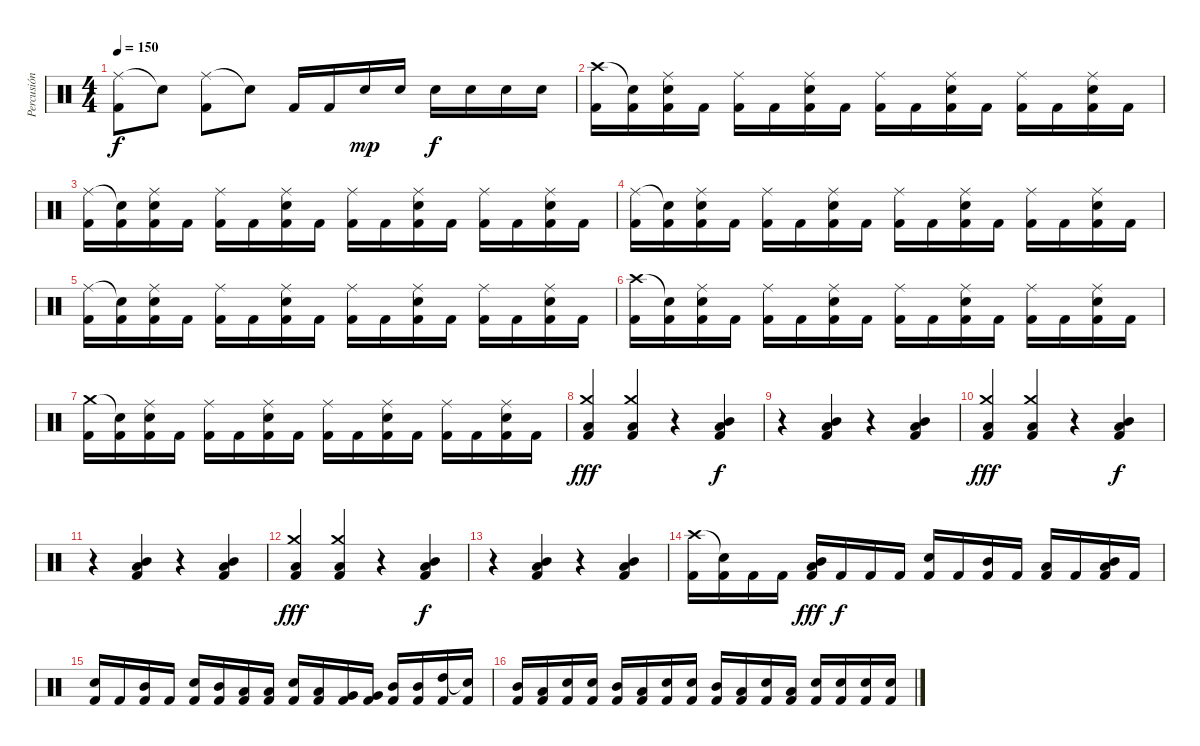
\track ("Percusión" "Percusión") {instrument percussion}
\staff {score}
\articulation defaults
\ts (4 4)
\tempo 150
\clef neutral
\ks c
("Ride (middle)" "Kick (hit) 2").8{dy f} "Snare (hit)"{t}.8 ("Ride (middle)" "Kick (hit) 2").8 "Snare (hit)"{t}.8 "Kick (hit) 2".16 "Kick (hit) 2".16 "Electric Snare (hit)".16{dy mp} "Electric Snare (hit)".16 "Electric Snare (hit)".16{dy f} "Electric Snare (hit)".16 "Electric Snare (hit)".16 "Electric Snare (hit)".16 |
("Crash high (hit)" "Kick (hit) 2").16 ("Snare (hit)"{t} "Kick (hit) 2").16 ("Ride (middle)" "Electric Snare (hit)" "Kick (hit) 2").16 "Kick (hit) 2".16 ("Ride (middle)" "Kick (hit) 2").16 "Kick (hit) 2".16 ("Ride (middle)" "Electric Snare (hit)" "Kick (hit) 2").16 "Kick (hit) 2".16 ("Ride (middle)" "Kick (hit) 2").16 "Kick (hit) 2".16 ("Ride (middle)" "Electric Snare (hit)" "Kick (hit) 2").16 "Kick (hit) 2".16 ("Ride (middle)" "Kick (hit) 2").16 "Kick (hit) 2".16 ("Ride (middle)" "Electric Snare (hit)" "Kick (hit) 2").16 "Kick (hit) 2".16 |
("Ride (middle)" "Kick (hit) 2").16 ("Snare (hit)"{t} "Kick (hit) 2").16 ("Ride (middle)" "Electric Snare (hit)" "Kick (hit) 2").16 "Kick (hit) 2".16 ("Ride (middle)" "Kick (hit) 2").16 "Kick (hit) 2".16 ("Ride (middle)" "Electric Snare (hit)" "Kick (hit) 2").16 "Kick (hit) 2".16 ("Ride (middle)" "Kick (hit) 2").16 "Kick (hit) 2".16 ("Ride (middle)" "Electric Snare (hit)" "Kick (hit) 2").16 "Kick (hit) 2".16 ("Ride (middle)" "Kick (hit) 2").16 "Kick (hit) 2".16 ("Ride (middle)" "Electric Snare (hit)" "Kick (hit) 2").16 "Kick (hit) 2".16 |
("Ride (middle)" "Kick (hit) 2").16 ("Snare (hit)"{t} "Kick (hit) 2").16 ("Ride (middle)" "Electric Snare (hit)" "Kick (hit) 2").16 "Kick (hit) 2".16 ("Ride (middle)" "Kick (hit) 2").16 "Kick (hit) 2".16 ("Ride (middle)" "Electric Snare (hit)" "Kick (hit) 2").16 "Kick (hit) 2".16 ("Ride (middle)" "Kick (hit) 2").16 "Kick (hit) 2".16 ("Ride (middle)" "Electric Snare (hit)" "Kick (hit) 2").16 "Kick (hit) 2".16 ("Ride (middle)" "Kick (hit) 2").16 "Kick (hit) 2".16 ("Ride (middle)" "Electric Snare (hit)" "Kick (hit) 2").16 "Kick (hit) 2".16 |
("Ride (middle)" "Kick (hit) 2").16 ("Snare (hit)"{t} "Kick (hit) 2").16 ("Ride (middle)" "Electric Snare (hit)" "Kick (hit) 2").16 "Kick (hit) 2".16 ("Ride (middle)" "Kick (hit) 2").16 "Kick (hit) 2".16 ("Ride (middle)" "Electric Snare (hit)" "Kick (hit) 2").16 "Kick (hit) 2".16 ("Ride (middle)" "Kick (hit) 2").16 "Kick (hit) 2".16 ("Ride (middle)" "Electric Snare (hit)" "Kick (hit) 2").16 "Kick (hit) 2".16 ("Ride (middle)" "Kick (hit) 2").16 "Kick (hit) 2".16 ("Ride (middle)" "Electric Snare (hit)" "Kick (hit) 2").16 "Kick (hit) 2".16 |
("Crash high (hit)" "Kick (hit) 2").16 ("Snare (hit)"{t} "Kick (hit) 2").16 ("Ride (middle)" "Electric Snare (hit)" "Kick (hit) 2").16 "Kick (hit) 2".16 ("Ride (middle)" "Kick (hit) 2").16 "Kick (hit) 2".16 ("Ride (middle)" "Electric Snare (hit)" "Kick (hit) 2").16 "Kick (hit) 2".16 ("Ride (middle)" "Kick (hit) 2").16 "Kick (hit) 2".16 ("Ride (middle)" "Electric Snare (hit)" "Kick (hit) 2").16 "Kick (hit) 2".16 ("Ride (middle)" "Kick (hit) 2").16 "Kick (hit) 2".16 ("Ride (middle)" "Electric Snare (hit)" "Kick (hit) 2").16 "Kick (hit) 2".16 |
("Crash medium (hit)" "Kick (hit) 2").16 ("Snare (hit)"{t} "Kick (hit) 2").16 ("Ride (middle)" "Electric Snare (hit)" "Kick (hit) 2").16 "Kick (hit) 2".16 ("Ride (middle)" "Kick (hit) 2").16 "Kick (hit) 2".16 ("Ride (middle)" "Electric Snare (hit)" "Kick (hit) 2").16 "Kick (hit) 2".16 ("Ride (middle)" "Kick (hit) 2").16 "Kick (hit) 2".16 ("Ride (middle)" "Electric Snare (hit)" "Kick (hit) 2").16 "Kick (hit) 2".16 ("Ride (middle)" "Kick (hit) 2").16 "Kick (hit) 2".16 ("Ride (middle)" "Electric Snare (hit)" "Kick (hit) 2").16 "Kick (hit) 2".16 |
("Crash medium (hit)" "Low Tom (hit)" "Kick (hit) 2").4{dy fff} ("Crash medium (hit)" "Low Tom (hit)" "Kick (hit) 2").4 r.4 ("Mid Tom (hit)" "Low Tom (hit)" "Kick (hit) 2").4{dy f} |
r.4 ("Mid Tom (hit)" "Low Tom (hit)" "Kick (hit) 2").4 r.4 ("Mid Tom (hit)" "Low Tom (hit)" "Kick (hit) 2").4 |
("Crash medium (hit)" "Low Tom (hit)" "Kick (hit) 2").4{dy fff} ("Crash medium (hit)" "Low Tom (hit)" "Kick (hit) 2").4 r.4 ("Mid Tom (hit)" "Low Tom (hit)" "Kick (hit) 2").4{dy f} |
r.4 ("Mid Tom (hit)" "Low Tom (hit)" "Kick (hit) 2").4 r.4 ("Mid Tom (hit)" "Low Tom (hit)" "Kick (hit) 2").4 |
("Crash medium (hit)" "Low Tom (hit)" "Kick (hit) 2").4{dy fff} ("Crash medium (hit)" "Low Tom (hit)" "Kick (hit) 2").4 r.4 ("Mid Tom (hit)" "Low Tom (hit)" "Kick (hit) 2").4{dy f} |
r.4 ("Mid Tom (hit)" "Low Tom (hit)" "Kick (hit) 2").4 r.4 ("Mid Tom (hit)" "Low Tom (hit)" "Kick (hit) 2").4 |
("Crash high (hit)" "Kick (hit) 2").16 ("Snare (hit)"{t} "Kick (hit) 2").16 "Kick (hit) 2".16 "Kick (hit) 2".16 ("Low Tom (hit)" "Mid Tom (hit)" "Kick (hit) 2").16{dy fff} "Kick (hit) 2".16{dy f} "Kick (hit) 2".16 "Kick (hit) 2".16 ("Electric Snare (hit)" "Kick (hit) 2").16 "Kick (hit) 2".16 ("Mid Tom (hit)" "Kick (hit) 2").16 "Kick (hit) 2".16 ("Low Tom (hit)" "Kick (hit) 2").16 "Kick (hit) 2".16 ("Low Tom (hit)" "Mid Tom (hit)" "Kick (hit) 2").16 "Kick (hit) 2".16 |
("Electric Snare (hit)" "Kick (hit) 2").16 "Kick (hit) 2".16 ("Mid Tom (hit)" "Kick (hit) 2").16 "Kick (hit) 2".16 ("Electric Snare (hit)" "Kick (hit) 2").16 ("Mid Tom (hit)" "Kick (hit) 2").16 ("Low Tom (hit)" "Kick (hit) 2").16 ("Low Tom (hit)" "Kick (hit) 2").16 ("Electric Snare (hit)" "Kick (hit) 2").16 ("Low Tom (hit)" "Kick (hit) 2").16 ("Very Low Tom (hit)" "Kick (hit) 2").16 ("Very Low Tom (hit)" "Kick (hit) 2").16 ("Mid Tom (hit)" "Kick (hit) 2").16 ("Mid Tom (hit)" "Kick (hit) 2").16 ("High Tom (hit)" "Kick (hit) 2").16 ("Electric Snare (hit)"{t} "Kick (hit) 2").16 |
("Mid Tom (hit)" "Kick (hit) 2").16 ("Low Tom (hit)" "Kick (hit) 2").16 ("Electric Snare (hit)" "Kick (hit) 2").16 ("Electric Snare (hit)" "Kick (hit) 2").16 ("Mid Tom (hit)" "Kick (hit) 2").16 ("Low Tom (hit)" "Kick (hit) 2").16 ("Electric Snare (hit)" "Kick (hit) 2").16 ("Electric Snare (hit)" "Kick (hit) 2").16 ("Mid Tom (hit)" "Kick (hit) 2").16 ("Low Tom (hit)" "Kick (hit) 2").16 ("Electric Snare (hit)" "Kick (hit) 2").16 ("Low Tom (hit)" "Kick (hit) 2").16 ("Electric Snare (hit)" "Kick (hit) 2").16 ("Electric Snare (hit)" "Kick (hit) 2").16 ("Electric Snare (hit)" "Kick (hit) 2").16 ("Electric Snare (hit)" "Kick (hit) 2").16
